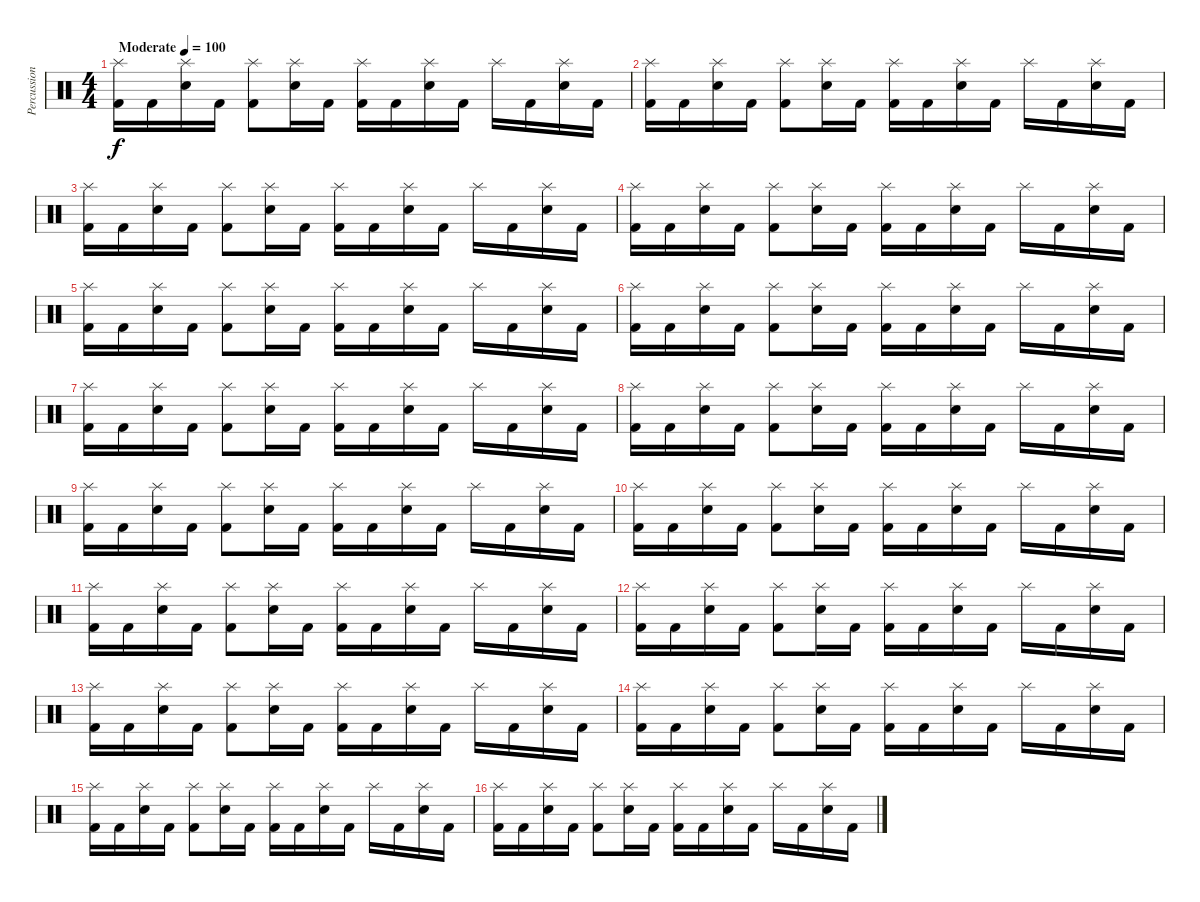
\track ("Percussion" "Percussion") {instrument percussion}
\staff {score}
\articulation defaults
\ts (4 4)
\tempo (100 "Moderate")
\clef neutral
\ks c
("Splash (hit)" "Kick (hit) 2").16{dy f} "Kick (hit) 2".16 ("Splash (hit)" "Electric Snare (hit)").16 "Kick (hit) 2".16 ("Splash (hit)" "Kick (hit) 2").8 ("Splash (hit)" "Electric Snare (hit)").16 "Kick (hit) 2".16 ("Splash (hit)" "Kick (hit) 2").16 "Kick (hit) 2".16 ("Splash (hit)" "Electric Snare (hit)").16 "Kick (hit) 2".16 "Splash (hit)".16 "Kick (hit) 2".16 ("Splash (hit)" "Electric Snare (hit)").16 "Kick (hit) 2".16 |
("Splash (hit)" "Kick (hit) 2").16 "Kick (hit) 2".16 ("Splash (hit)" "Electric Snare (hit)").16 "Kick (hit) 2".16 ("Splash (hit)" "Kick (hit) 2").8 ("Splash (hit)" "Electric Snare (hit)").16 "Kick (hit) 2".16 ("Splash (hit)" "Kick (hit) 2").16 "Kick (hit) 2".16 ("Splash (hit)" "Electric Snare (hit)").16 "Kick (hit) 2".16 "Splash (hit)".16 "Kick (hit) 2".16 ("Splash (hit)" "Electric Snare (hit)").16 "Kick (hit) 2".16 |
("Splash (hit)" "Kick (hit) 2").16 "Kick (hit) 2".16 ("Splash (hit)" "Electric Snare (hit)").16 "Kick (hit) 2".16 ("Splash (hit)" "Kick (hit) 2").8 ("Splash (hit)" "Electric Snare (hit)").16 "Kick (hit) 2".16 ("Splash (hit)" "Kick (hit) 2").16 "Kick (hit) 2".16 ("Splash (hit)" "Electric Snare (hit)").16 "Kick (hit) 2".16 "Splash (hit)".16 "Kick (hit) 2".16 ("Splash (hit)" "Electric Snare (hit)").16 "Kick (hit) 2".16 |
("Splash (hit)" "Kick (hit) 2").16 "Kick (hit) 2".16 ("Splash (hit)" "Electric Snare (hit)").16 "Kick (hit) 2".16 ("Splash (hit)" "Kick (hit) 2").8 ("Splash (hit)" "Electric Snare (hit)").16 "Kick (hit) 2".16 ("Splash (hit)" "Kick (hit) 2").16 "Kick (hit) 2".16 ("Splash (hit)" "Electric Snare (hit)").16 "Kick (hit) 2".16 "Splash (hit)".16 "Kick (hit) 2".16 ("Splash (hit)" "Electric Snare (hit)").16 "Kick (hit) 2".16 |
("Splash (hit)" "Kick (hit) 2").16 "Kick (hit) 2".16 ("Splash (hit)" "Electric Snare (hit)").16 "Kick (hit) 2".16 ("Splash (hit)" "Kick (hit) 2").8 ("Splash (hit)" "Electric Snare (hit)").16 "Kick (hit) 2".16 ("Splash (hit)" "Kick (hit) 2").16 "Kick (hit) 2".16 ("Splash (hit)" "Electric Snare (hit)").16 "Kick (hit) 2".16 "Splash (hit)".16 "Kick (hit) 2".16 ("Splash (hit)" "Electric Snare (hit)").16 "Kick (hit) 2".16 |
("Splash (hit)" "Kick (hit) 2").16 "Kick (hit) 2".16 ("Splash (hit)" "Electric Snare (hit)").16 "Kick (hit) 2".16 ("Splash (hit)" "Kick (hit) 2").8 ("Splash (hit)" "Electric Snare (hit)").16 "Kick (hit) 2".16 ("Splash (hit)" "Kick (hit) 2").16 "Kick (hit) 2".16 ("Splash (hit)" "Electric Snare (hit)").16 "Kick (hit) 2".16 "Splash (hit)".16 "Kick (hit) 2".16 ("Splash (hit)" "Electric Snare (hit)").16 "Kick (hit) 2".16 |
("Splash (hit)" "Kick (hit) 2").16 "Kick (hit) 2".16 ("Splash (hit)" "Electric Snare (hit)").16 "Kick (hit) 2".16 ("Splash (hit)" "Kick (hit) 2").8 ("Splash (hit)" "Electric Snare (hit)").16 "Kick (hit) 2".16 ("Splash (hit)" "Kick (hit) 2").16 "Kick (hit) 2".16 ("Splash (hit)" "Electric Snare (hit)").16 "Kick (hit) 2".16 "Splash (hit)".16 "Kick (hit) 2".16 ("Splash (hit)" "Electric Snare (hit)").16 "Kick (hit) 2".16 |
("Splash (hit)" "Kick (hit) 2").16 "Kick (hit) 2".16 ("Splash (hit)" "Electric Snare (hit)").16 "Kick (hit) 2".16 ("Splash (hit)" "Kick (hit) 2").8 ("Splash (hit)" "Electric Snare (hit)").16 "Kick (hit) 2".16 ("Splash (hit)" "Kick (hit) 2").16 "Kick (hit) 2".16 ("Splash (hit)" "Electric Snare (hit)").16 "Kick (hit) 2".16 "Splash (hit)".16 "Kick (hit) 2".16 ("Splash (hit)" "Electric Snare (hit)").16 "Kick (hit) 2".16 |
("Splash (hit)" "Kick (hit) 2").16 "Kick (hit) 2".16 ("Splash (hit)" "Electric Snare (hit)").16 "Kick (hit) 2".16 ("Splash (hit)" "Kick (hit) 2").8 ("Splash (hit)" "Electric Snare (hit)").16 "Kick (hit) 2".16 ("Splash (hit)" "Kick (hit) 2").16 "Kick (hit) 2".16 ("Splash (hit)" "Electric Snare (hit)").16 "Kick (hit) 2".16 "Splash (hit)".16 "Kick (hit) 2".16 ("Splash (hit)" "Electric Snare (hit)").16 "Kick (hit) 2".16 |
("Splash (hit)" "Kick (hit) 2").16 "Kick (hit) 2".16 ("Splash (hit)" "Electric Snare (hit)").16 "Kick (hit) 2".16 ("Splash (hit)" "Kick (hit) 2").8 ("Splash (hit)" "Electric Snare (hit)").16 "Kick (hit) 2".16 ("Splash (hit)" "Kick (hit) 2").16 "Kick (hit) 2".16 ("Splash (hit)" "Electric Snare (hit)").16 "Kick (hit) 2".16 "Splash (hit)".16 "Kick (hit) 2".16 ("Splash (hit)" "Electric Snare (hit)").16 "Kick (hit) 2".16 |
("Splash (hit)" "Kick (hit) 2").16 "Kick (hit) 2".16 ("Splash (hit)" "Electric Snare (hit)").16 "Kick (hit) 2".16 ("Splash (hit)" "Kick (hit) 2").8 ("Splash (hit)" "Electric Snare (hit)").16 "Kick (hit) 2".16 ("Splash (hit)" "Kick (hit) 2").16 "Kick (hit) 2".16 ("Splash (hit)" "Electric Snare (hit)").16 "Kick (hit) 2".16 "Splash (hit)".16 "Kick (hit) 2".16 ("Splash (hit)" "Electric Snare (hit)").16 "Kick (hit) 2".16 |
("Splash (hit)" "Kick (hit) 2").16 "Kick (hit) 2".16 ("Splash (hit)" "Electric Snare (hit)").16 "Kick (hit) 2".16 ("Splash (hit)" "Kick (hit) 2").8 ("Splash (hit)" "Electric Snare (hit)").16 "Kick (hit) 2".16 ("Splash (hit)" "Kick (hit) 2").16 "Kick (hit) 2".16 ("Splash (hit)" "Electric Snare (hit)").16 "Kick (hit) 2".16 "Splash (hit)".16 "Kick (hit) 2".16 ("Splash (hit)" "Electric Snare (hit)").16 "Kick (hit) 2".16 |
("Splash (hit)" "Kick (hit) 2").16 "Kick (hit) 2".16 ("Splash (hit)" "Electric Snare (hit)").16 "Kick (hit) 2".16 ("Splash (hit)" "Kick (hit) 2").8 ("Splash (hit)" "Electric Snare (hit)").16 "Kick (hit) 2".16 ("Splash (hit)" "Kick (hit) 2").16 "Kick (hit) 2".16 ("Splash (hit)" "Electric Snare (hit)").16 "Kick (hit) 2".16 "Splash (hit)".16 "Kick (hit) 2".16 ("Splash (hit)" "Electric Snare (hit)").16 "Kick (hit) 2".16 |
("Splash (hit)" "Kick (hit) 2").16 "Kick (hit) 2".16 ("Splash (hit)" "Electric Snare (hit)").16 "Kick (hit) 2".16 ("Splash (hit)" "Kick (hit) 2").8 ("Splash (hit)" "Electric Snare (hit)").16 "Kick (hit) 2".16 ("Splash (hit)" "Kick (hit) 2").16 "Kick (hit) 2".16 ("Splash (hit)" "Electric Snare (hit)").16 "Kick (hit) 2".16 "Splash (hit)".16 "Kick (hit) 2".16 ("Splash (hit)" "Electric Snare (hit)").16 "Kick (hit) 2".16 |
("Splash (hit)" "Kick (hit) 2").16 "Kick (hit) 2".16 ("Splash (hit)" "Electric Snare (hit)").16 "Kick (hit) 2".16 ("Splash (hit)" "Kick (hit) 2").8 ("Splash (hit)" "Electric Snare (hit)").16 "Kick (hit) 2".16 ("Splash (hit)" "Kick (hit) 2").16 "Kick (hit) 2".16 ("Splash (hit)" "Electric Snare (hit)").16 "Kick (hit) 2".16 "Splash (hit)".16 "Kick (hit) 2".16 ("Splash (hit)" "Electric Snare (hit)").16 "Kick (hit) 2".16 |
("Splash (hit)" "Kick (hit) 2").16 "Kick (hit) 2".16 ("Splash (hit)" "Electric Snare (hit)").16 "Kick (hit) 2".16 ("Splash (hit)" "Kick (hit) 2").8 ("Splash (hit)" "Electric Snare (hit)").16 "Kick (hit) 2".16 ("Splash (hit)" "Kick (hit) 2").16 "Kick (hit) 2".16 ("Splash (hit)" "Electric Snare (hit)").16 "Kick (hit) 2".16 "Splash (hit)".16 "Kick (hit) 2".16 ("Splash (hit)" "Electric Snare (hit)").16 "Kick (hit) 2".16
